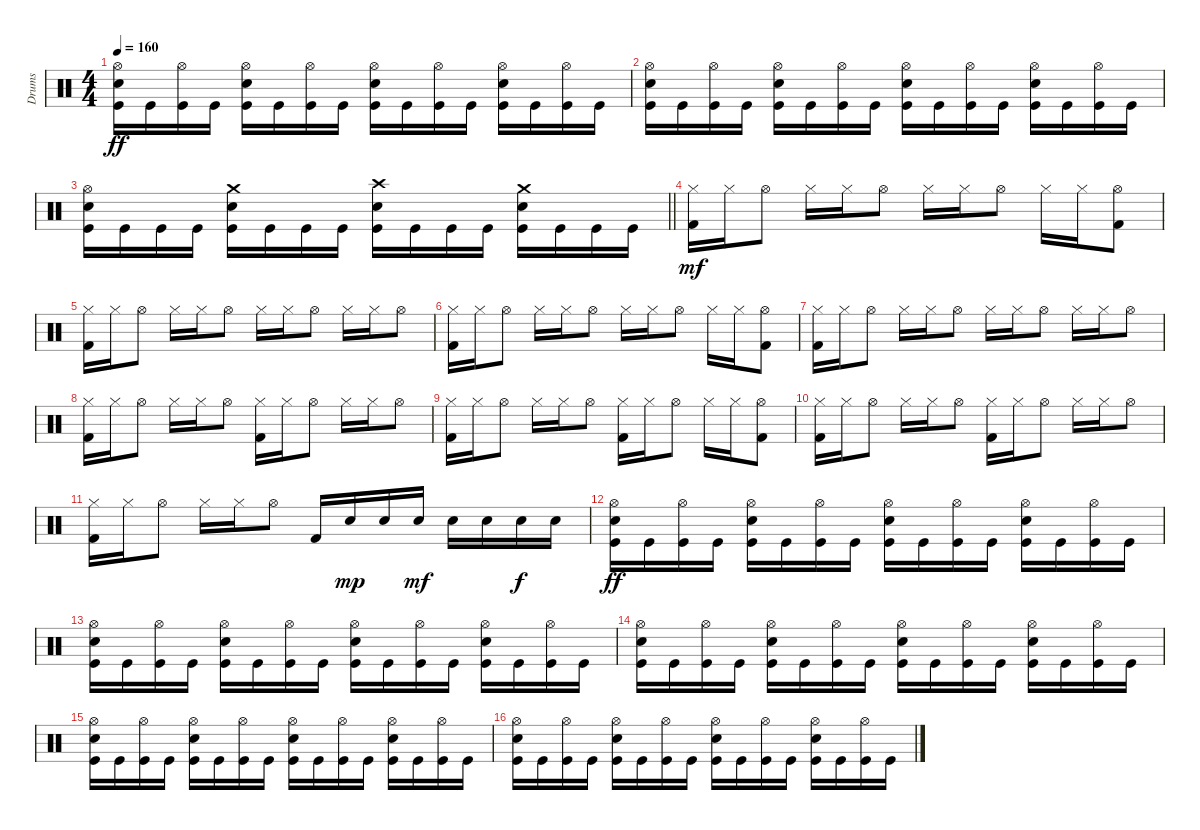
\track ("Drums" "Drums") {instrument percussion bank 127}
\staff {score}
\articulation defaults
\ts (4 4)
\tempo 160
\clef neutral
\ks c
("Hi-Hat (open)" "Snare (hit) 2" "Kick (hit)").16{dy ff} "Kick (hit)".16 ("Hi-Hat (open)" "Kick (hit)").16 "Kick (hit)".16 ("Hi-Hat (open)" "Snare (hit) 2" "Kick (hit)").16 "Kick (hit)".16 ("Hi-Hat (open)" "Kick (hit)").16 "Kick (hit)".16 ("Hi-Hat (open)" "Snare (hit) 2" "Kick (hit)").16 "Kick (hit)".16 ("Hi-Hat (open)" "Kick (hit)").16 "Kick (hit)".16 ("Hi-Hat (open)" "Snare (hit) 2" "Kick (hit)").16 "Kick (hit)".16 ("Hi-Hat (open)" "Kick (hit)").16 "Kick (hit)".16 |
("Hi-Hat (open)" "Snare (hit) 2" "Kick (hit)").16 "Kick (hit)".16 ("Hi-Hat (open)" "Kick (hit)").16 "Kick (hit)".16 ("Hi-Hat (open)" "Snare (hit) 2" "Kick (hit)").16 "Kick (hit)".16 ("Hi-Hat (open)" "Kick (hit)").16 "Kick (hit)".16 ("Hi-Hat (open)" "Snare (hit) 2" "Kick (hit)").16 "Kick (hit)".16 ("Hi-Hat (open)" "Kick (hit)").16 "Kick (hit)".16 ("Hi-Hat (open)" "Snare (hit) 2" "Kick (hit)").16 "Kick (hit)".16 ("Hi-Hat (open)" "Kick (hit)").16 "Kick (hit)".16 |
\barLineRight lightlight
("Hi-Hat (open)" "Snare (hit) 2" "Kick (hit)").16 "Kick (hit)".16 "Kick (hit)".16 "Kick (hit)".16 ("Crash medium (hit)" "Snare (hit) 2" "Kick (hit)").16 "Kick (hit)".16 "Kick (hit)".16 "Kick (hit)".16 ("Crash high (hit)" "Snare (hit) 2" "Kick (hit)").16 "Kick (hit)".16 "Kick (hit)".16 "Kick (hit)".16 ("Crash medium (hit)" "Snare (hit) 2" "Kick (hit)").16 "Kick (hit)".16 "Kick (hit)".16 "Kick (hit)".16 |
("Hi-Hat (closed)" "Kick (hit) 2").16{dy mf} "Hi-Hat (closed)".16 "Hi-Hat (open)".8 "Hi-Hat (closed)".16 "Hi-Hat (closed)".16 "Hi-Hat (open)".8 "Hi-Hat (closed)".16 "Hi-Hat (closed)".16 "Hi-Hat (open)".8 "Hi-Hat (closed)".16 "Hi-Hat (closed)".16 ("Hi-Hat (open)" "Kick (hit) 2").8 |
("Hi-Hat (closed)" "Kick (hit) 2").16 "Hi-Hat (closed)".16 "Hi-Hat (open)".8 "Hi-Hat (closed)".16 "Hi-Hat (closed)".16 "Hi-Hat (open)".8 "Hi-Hat (closed)".16 "Hi-Hat (closed)".16 "Hi-Hat (open)".8 "Hi-Hat (closed)".16 "Hi-Hat (closed)".16 "Hi-Hat (open)".8 |
("Hi-Hat (closed)" "Kick (hit) 2").16 "Hi-Hat (closed)".16 "Hi-Hat (open)".8 "Hi-Hat (closed)".16 "Hi-Hat (closed)".16 "Hi-Hat (open)".8 "Hi-Hat (closed)".16 "Hi-Hat (closed)".16 "Hi-Hat (open)".8 "Hi-Hat (closed)".16 "Hi-Hat (closed)".16 ("Hi-Hat (open)" "Kick (hit) 2").8 |
("Hi-Hat (closed)" "Kick (hit) 2").16 "Hi-Hat (closed)".16 "Hi-Hat (open)".8 "Hi-Hat (closed)".16 "Hi-Hat (closed)".16 "Hi-Hat (open)".8 "Hi-Hat (closed)".16 "Hi-Hat (closed)".16 "Hi-Hat (open)".8 "Hi-Hat (closed)".16 "Hi-Hat (closed)".16 "Hi-Hat (open)".8 |
("Hi-Hat (closed)" "Kick (hit) 2").16 "Hi-Hat (closed)".16 "Hi-Hat (open)".8 "Hi-Hat (closed)".16 "Hi-Hat (closed)".16 "Hi-Hat (open)".8 ("Hi-Hat (closed)" "Kick (hit) 2").16 "Hi-Hat (closed)".16 "Hi-Hat (open)".8 "Hi-Hat (closed)".16 "Hi-Hat (closed)".16 "Hi-Hat (open)".8 |
("Hi-Hat (closed)" "Kick (hit) 2").16 "Hi-Hat (closed)".16 "Hi-Hat (open)".8 "Hi-Hat (closed)".16 "Hi-Hat (closed)".16 "Hi-Hat (open)".8 ("Hi-Hat (closed)" "Kick (hit) 2").16 "Hi-Hat (closed)".16 "Hi-Hat (open)".8 "Hi-Hat (closed)".16 "Hi-Hat (closed)".16 ("Hi-Hat (open)" "Kick (hit) 2").8 |
("Hi-Hat (closed)" "Kick (hit) 2").16 "Hi-Hat (closed)".16 "Hi-Hat (open)".8 "Hi-Hat (closed)".16 "Hi-Hat (closed)".16 "Hi-Hat (open)".8 ("Hi-Hat (closed)" "Kick (hit) 2").16 "Hi-Hat (closed)".16 "Hi-Hat (open)".8 "Hi-Hat (closed)".16 "Hi-Hat (closed)".16 "Hi-Hat (open)".8 |
("Hi-Hat (closed)" "Kick (hit) 2").16 "Hi-Hat (closed)".16 "Hi-Hat (open)".8 "Hi-Hat (closed)".16 "Hi-Hat (closed)".16 "Hi-Hat (open)".8 "Kick (hit) 2".16 "Snare (hit) 2".16{dy mp} "Snare (hit) 2".16 "Snare (hit) 2".16{dy mf} "Snare (hit) 2".16 "Snare (hit) 2".16 "Snare (hit) 2".16{dy f} "Snare (hit) 2".16 |
("Hi-Hat (open)" "Snare (hit) 2" "Kick (hit)").16{dy ff} "Kick (hit)".16 ("Hi-Hat (open)" "Kick (hit)").16 "Kick (hit)".16 ("Hi-Hat (open)" "Snare (hit) 2" "Kick (hit)").16 "Kick (hit)".16 ("Hi-Hat (open)" "Kick (hit)").16 "Kick (hit)".16 ("Hi-Hat (open)" "Snare (hit) 2" "Kick (hit)").16 "Kick (hit)".16 ("Hi-Hat (open)" "Kick (hit)").16 "Kick (hit)".16 ("Hi-Hat (open)" "Snare (hit) 2" "Kick (hit)").16 "Kick (hit)".16 ("Hi-Hat (open)" "Kick (hit)").16 "Kick (hit)".16 |
("Hi-Hat (open)" "Snare (hit) 2" "Kick (hit)").16 "Kick (hit)".16 ("Hi-Hat (open)" "Kick (hit)").16 "Kick (hit)".16 ("Hi-Hat (open)" "Snare (hit) 2" "Kick (hit)").16 "Kick (hit)".16 ("Hi-Hat (open)" "Kick (hit)").16 "Kick (hit)".16 ("Hi-Hat (open)" "Snare (hit) 2" "Kick (hit)").16 "Kick (hit)".16 ("Hi-Hat (open)" "Kick (hit)").16 "Kick (hit)".16 ("Hi-Hat (open)" "Snare (hit) 2" "Kick (hit)").16 "Kick (hit)".16 ("Hi-Hat (open)" "Kick (hit)").16 "Kick (hit)".16 |
("Hi-Hat (open)" "Snare (hit) 2" "Kick (hit)").16 "Kick (hit)".16 ("Hi-Hat (open)" "Kick (hit)").16 "Kick (hit)".16 ("Hi-Hat (open)" "Snare (hit) 2" "Kick (hit)").16 "Kick (hit)".16 ("Hi-Hat (open)" "Kick (hit)").16 "Kick (hit)".16 ("Hi-Hat (open)" "Snare (hit) 2" "Kick (hit)").16 "Kick (hit)".16 ("Hi-Hat (open)" "Kick (hit)").16 "Kick (hit)".16 ("Hi-Hat (open)" "Snare (hit) 2" "Kick (hit)").16 "Kick (hit)".16 ("Hi-Hat (open)" "Kick (hit)").16 "Kick (hit)".16 |
("Hi-Hat (open)" "Snare (hit) 2" "Kick (hit)").16 "Kick (hit)".16 ("Hi-Hat (open)" "Kick (hit)").16 "Kick (hit)".16 ("Hi-Hat (open)" "Snare (hit) 2" "Kick (hit)").16 "Kick (hit)".16 ("Hi-Hat (open)" "Kick (hit)").16 "Kick (hit)".16 ("Hi-Hat (open)" "Snare (hit) 2" "Kick (hit)").16 "Kick (hit)".16 ("Hi-Hat (open)" "Kick (hit)").16 "Kick (hit)".16 ("Hi-Hat (open)" "Snare (hit) 2" "Kick (hit)").16 "Kick (hit)".16 ("Hi-Hat (open)" "Kick (hit)").16 "Kick (hit)".16 |
("Hi-Hat (open)" "Snare (hit) 2" "Kick (hit)").16 "Kick (hit)".16 ("Hi-Hat (open)" "Kick (hit)").16 "Kick (hit)".16 ("Hi-Hat (open)" "Snare (hit) 2" "Kick (hit)").16 "Kick (hit)".16 ("Hi-Hat (open)" "Kick (hit)").16 "Kick (hit)".16 ("Hi-Hat (open)" "Snare (hit) 2" "Kick (hit)").16 "Kick (hit)".16 ("Hi-Hat (open)" "Kick (hit)").16 "Kick (hit)".16 ("Hi-Hat (open)" "Snare (hit) 2" "Kick (hit)").16 "Kick (hit)".16 ("Hi-Hat (open)" "Kick (hit)").16 "Kick (hit)".16
